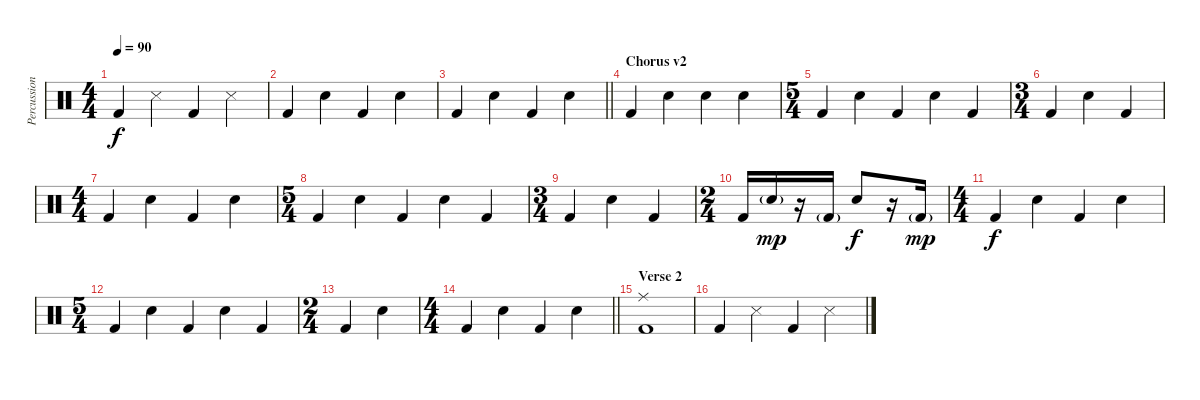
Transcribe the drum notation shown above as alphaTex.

\track ("Percussion" "Percussion") {instrument percussion}
\staff {score}
\articulation defaults
\ts (4 4)
\tempo 90
\clef neutral
\ks c "Kick (hit) 2".4{dy f} "Snare (side stick) 3".4 "Kick (hit) 2".4 "Snare (side stick) 3".4
|
"Kick (hit) 2".4 "Snare (hit) 2".4 "Kick (hit) 2".4 "Snare (hit) 2".4 |
\barLineRight lightlight "Kick (hit) 2".4 "Snare (hit) 2".4 "Kick (hit) 2".4 "Snare (hit) 2".4
|
\section ("" "Chorus v2")
"Kick (hit) 2".4 "Snare (hit) 2".4 "Snare (hit) 2".4 "Snare (hit) 2".4 |
\ts (5 4)
"Kick (hit) 2".4 "Snare (hit) 2".4 "Kick (hit) 2".4 "Snare (hit) 2".4 "Kick (hit) 2".4 |
\ts (3 4)
"Kick (hit) 2".4 "Snare (hit) 2".4 "Kick (hit) 2".4 |
\ts (4 4)
"Kick (hit) 2".4 "Snare (hit) 2".4 "Kick (hit) 2".4 "Snare (hit) 2".4 |
\ts (5 4)
"Kick (hit) 2".4 "Snare (hit) 2".4 "Kick (hit) 2".4 "Snare (hit) 2".4 "Kick (hit) 2".4 |
\ts (3 4)
"Kick (hit) 2".4 "Snare (hit) 2".4 "Kick (hit) 2".4 |
\ts (2 4)
"Kick (hit) 2".16 "Snare (hit) 2"{g}.16{dy mp} r.16 "Kick (hit) 2"{g}.16 "Snare (hit) 2".8{dy f} r.16 "Kick (hit) 2"{g}.16{dy mp} |
\ts (4 4)
"Kick (hit) 2".4{dy f} "Snare (hit) 2".4 "Kick (hit) 2".4 "Snare (hit) 2".4 |
\ts (5 4)
"Kick (hit) 2".4 "Snare (hit) 2".4 "Kick (hit) 2".4 "Snare (hit) 2".4 "Kick (hit) 2".4 |
\ts (2 4)
"Kick (hit) 2".4 "Snare (hit) 2".4 |
\ts (4 4)
\barLineRight lightlight "Kick (hit) 2".4 "Snare (hit) 2".4 "Kick (hit) 2".4 "Snare (hit) 2".4
|
\section ("" "Verse 2")
("Ride (middle)" "Kick (hit) 2").1 |
"Kick (hit) 2".4 "Snare (side stick) 3".4 "Kick (hit) 2".4 "Snare (side stick) 3".4
